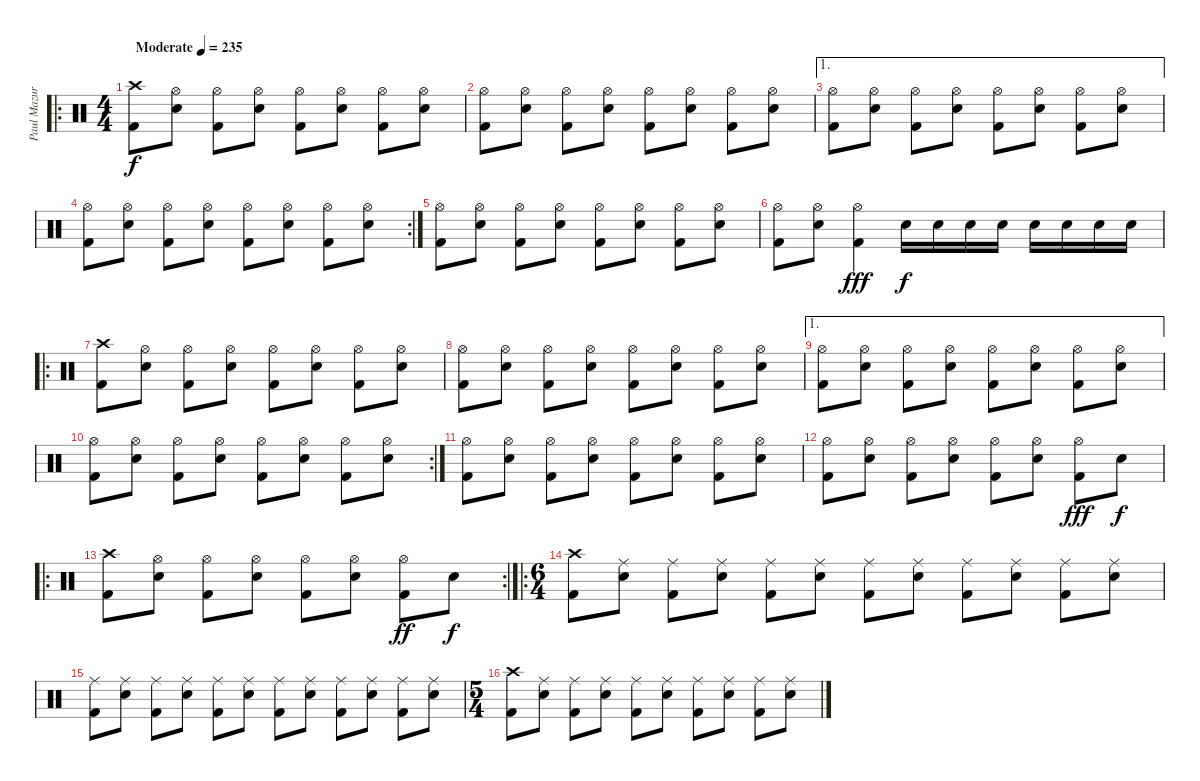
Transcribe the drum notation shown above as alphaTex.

\track ("Paul Mazurkiewicz" "Paul Mazur") {instrument percussion}
\staff {score}
\articulation defaults
\ro
\ts (4 4)
\tempo (235 "Moderate")
\clef neutral
\ks c
("Crash high (hit)" "Kick (hit) 2").8{dy f} ("Hi-Hat (open)" "Electric Snare (hit)").8 ("Hi-Hat (open)" "Kick (hit) 2").8 ("Hi-Hat (open)" "Electric Snare (hit)").8 ("Hi-Hat (open)" "Kick (hit) 2").8 ("Hi-Hat (open)" "Electric Snare (hit)").8 ("Hi-Hat (open)" "Kick (hit) 2").8 ("Hi-Hat (open)" "Electric Snare (hit)").8 |
("Hi-Hat (open)" "Kick (hit) 2").8 ("Hi-Hat (open)" "Electric Snare (hit)").8 ("Hi-Hat (open)" "Kick (hit) 2").8 ("Hi-Hat (open)" "Electric Snare (hit)").8 ("Hi-Hat (open)" "Kick (hit) 2").8 ("Hi-Hat (open)" "Electric Snare (hit)").8 ("Hi-Hat (open)" "Kick (hit) 2").8 ("Hi-Hat (open)" "Electric Snare (hit)").8 |
\ae 1
("Hi-Hat (open)" "Kick (hit) 2").8 ("Hi-Hat (open)" "Electric Snare (hit)").8 ("Hi-Hat (open)" "Kick (hit) 2").8 ("Hi-Hat (open)" "Electric Snare (hit)").8 ("Hi-Hat (open)" "Kick (hit) 2").8 ("Hi-Hat (open)" "Electric Snare (hit)").8 ("Hi-Hat (open)" "Kick (hit) 2").8 ("Hi-Hat (open)" "Electric Snare (hit)").8 |
\rc 2
("Hi-Hat (open)" "Kick (hit) 2").8 ("Hi-Hat (open)" "Electric Snare (hit)").8 ("Hi-Hat (open)" "Kick (hit) 2").8 ("Hi-Hat (open)" "Electric Snare (hit)").8 ("Hi-Hat (open)" "Kick (hit) 2").8 ("Hi-Hat (open)" "Electric Snare (hit)").8 ("Hi-Hat (open)" "Kick (hit) 2").8 ("Hi-Hat (open)" "Electric Snare (hit)").8 |
("Hi-Hat (open)" "Kick (hit) 2").8 ("Hi-Hat (open)" "Electric Snare (hit)").8 ("Hi-Hat (open)" "Kick (hit) 2").8 ("Hi-Hat (open)" "Electric Snare (hit)").8 ("Hi-Hat (open)" "Kick (hit) 2").8 ("Hi-Hat (open)" "Electric Snare (hit)").8 ("Hi-Hat (open)" "Kick (hit) 2").8 ("Hi-Hat (open)" "Electric Snare (hit)").8 |
("Hi-Hat (open)" "Kick (hit) 2").8 ("Hi-Hat (open)" "Electric Snare (hit)").8 ("Hi-Hat (open)" "Kick (hit) 2").4{dy fff} "Electric Snare (hit)".16{dy f} "Electric Snare (hit)".16 "Electric Snare (hit)".16 "Electric Snare (hit)".16 "Electric Snare (hit)".16 "Electric Snare (hit)".16 "Electric Snare (hit)".16 "Electric Snare (hit)".16 |
\ro
("Crash high (hit)" "Kick (hit) 2").8 ("Hi-Hat (open)" "Electric Snare (hit)").8 ("Hi-Hat (open)" "Kick (hit) 2").8 ("Hi-Hat (open)" "Electric Snare (hit)").8 ("Hi-Hat (open)" "Kick (hit) 2").8 ("Hi-Hat (open)" "Electric Snare (hit)").8 ("Hi-Hat (open)" "Kick (hit) 2").8 ("Hi-Hat (open)" "Electric Snare (hit)").8 |
("Hi-Hat (open)" "Kick (hit) 2").8 ("Hi-Hat (open)" "Electric Snare (hit)").8 ("Hi-Hat (open)" "Kick (hit) 2").8 ("Hi-Hat (open)" "Electric Snare (hit)").8 ("Hi-Hat (open)" "Kick (hit) 2").8 ("Hi-Hat (open)" "Electric Snare (hit)").8 ("Hi-Hat (open)" "Kick (hit) 2").8 ("Hi-Hat (open)" "Electric Snare (hit)").8 |
\ae 1
("Hi-Hat (open)" "Kick (hit) 2").8 ("Hi-Hat (open)" "Electric Snare (hit)").8 ("Hi-Hat (open)" "Kick (hit) 2").8 ("Hi-Hat (open)" "Electric Snare (hit)").8 ("Hi-Hat (open)" "Kick (hit) 2").8 ("Hi-Hat (open)" "Electric Snare (hit)").8 ("Hi-Hat (open)" "Kick (hit) 2").8 ("Hi-Hat (open)" "Electric Snare (hit)").8 |
\rc 2
("Hi-Hat (open)" "Kick (hit) 2").8 ("Hi-Hat (open)" "Electric Snare (hit)").8 ("Hi-Hat (open)" "Kick (hit) 2").8 ("Hi-Hat (open)" "Electric Snare (hit)").8 ("Hi-Hat (open)" "Kick (hit) 2").8 ("Hi-Hat (open)" "Electric Snare (hit)").8 ("Hi-Hat (open)" "Kick (hit) 2").8 ("Hi-Hat (open)" "Electric Snare (hit)").8 |
("Hi-Hat (open)" "Kick (hit) 2").8 ("Hi-Hat (open)" "Electric Snare (hit)").8 ("Hi-Hat (open)" "Kick (hit) 2").8 ("Hi-Hat (open)" "Electric Snare (hit)").8 ("Hi-Hat (open)" "Kick (hit) 2").8 ("Hi-Hat (open)" "Electric Snare (hit)").8 ("Hi-Hat (open)" "Kick (hit) 2").8 ("Hi-Hat (open)" "Electric Snare (hit)").8 |
("Hi-Hat (open)" "Kick (hit) 2").8 ("Hi-Hat (open)" "Electric Snare (hit)").8 ("Hi-Hat (open)" "Kick (hit) 2").8 ("Hi-Hat (open)" "Electric Snare (hit)").8 ("Hi-Hat (open)" "Kick (hit) 2").8 ("Hi-Hat (open)" "Electric Snare (hit)").8 ("Hi-Hat (open)" "Kick (hit) 2").8{dy fff} "Electric Snare (hit)".8{dy f} |
\ro
\rc 2
("Crash high (hit)" "Kick (hit) 2").8 ("Hi-Hat (open)" "Electric Snare (hit)").8 ("Hi-Hat (open)" "Kick (hit) 2").8 ("Hi-Hat (open)" "Electric Snare (hit)").8 ("Hi-Hat (open)" "Kick (hit) 2").8 ("Hi-Hat (open)" "Electric Snare (hit)").8 ("Hi-Hat (open)" "Kick (hit) 2").8{dy ff} "Electric Snare (hit)".8{dy f} |
\ro
\ts (6 4)
("Crash high (hit)" "Kick (hit) 2").8 ("Ride (middle)" "Electric Snare (hit)").8 ("Ride (middle)" "Kick (hit) 2").8 ("Ride (middle)" "Electric Snare (hit)").8 ("Ride (middle)" "Kick (hit) 2").8 ("Ride (middle)" "Electric Snare (hit)").8 ("Ride (middle)" "Kick (hit) 2").8 ("Ride (middle)" "Electric Snare (hit)").8 ("Ride (middle)" "Kick (hit) 2").8 ("Ride (middle)" "Electric Snare (hit)").8 ("Ride (middle)" "Kick (hit) 2").8 ("Ride (middle)" "Electric Snare (hit)").8 |
("Ride (middle)" "Kick (hit) 2").8 ("Ride (middle)" "Electric Snare (hit)").8 ("Ride (middle)" "Kick (hit) 2").8 ("Ride (middle)" "Electric Snare (hit)").8 ("Ride (middle)" "Kick (hit) 2").8 ("Ride (middle)" "Electric Snare (hit)").8 ("Ride (middle)" "Kick (hit) 2").8 ("Ride (middle)" "Electric Snare (hit)").8 ("Ride (middle)" "Kick (hit) 2").8 ("Ride (middle)" "Electric Snare (hit)").8 ("Ride (middle)" "Kick (hit) 2").8 ("Ride (middle)" "Electric Snare (hit)").8 |
\ts (5 4)
("Crash high (hit)" "Kick (hit) 2").8 ("Ride (middle)" "Electric Snare (hit)").8 ("Ride (middle)" "Kick (hit) 2").8 ("Ride (middle)" "Electric Snare (hit)").8 ("Ride (middle)" "Kick (hit) 2").8 ("Ride (middle)" "Electric Snare (hit)").8 ("Ride (middle)" "Kick (hit) 2").8 ("Ride (middle)" "Electric Snare (hit)").8 ("Ride (middle)" "Kick (hit) 2").8 ("Ride (middle)" "Electric Snare (hit)").8
